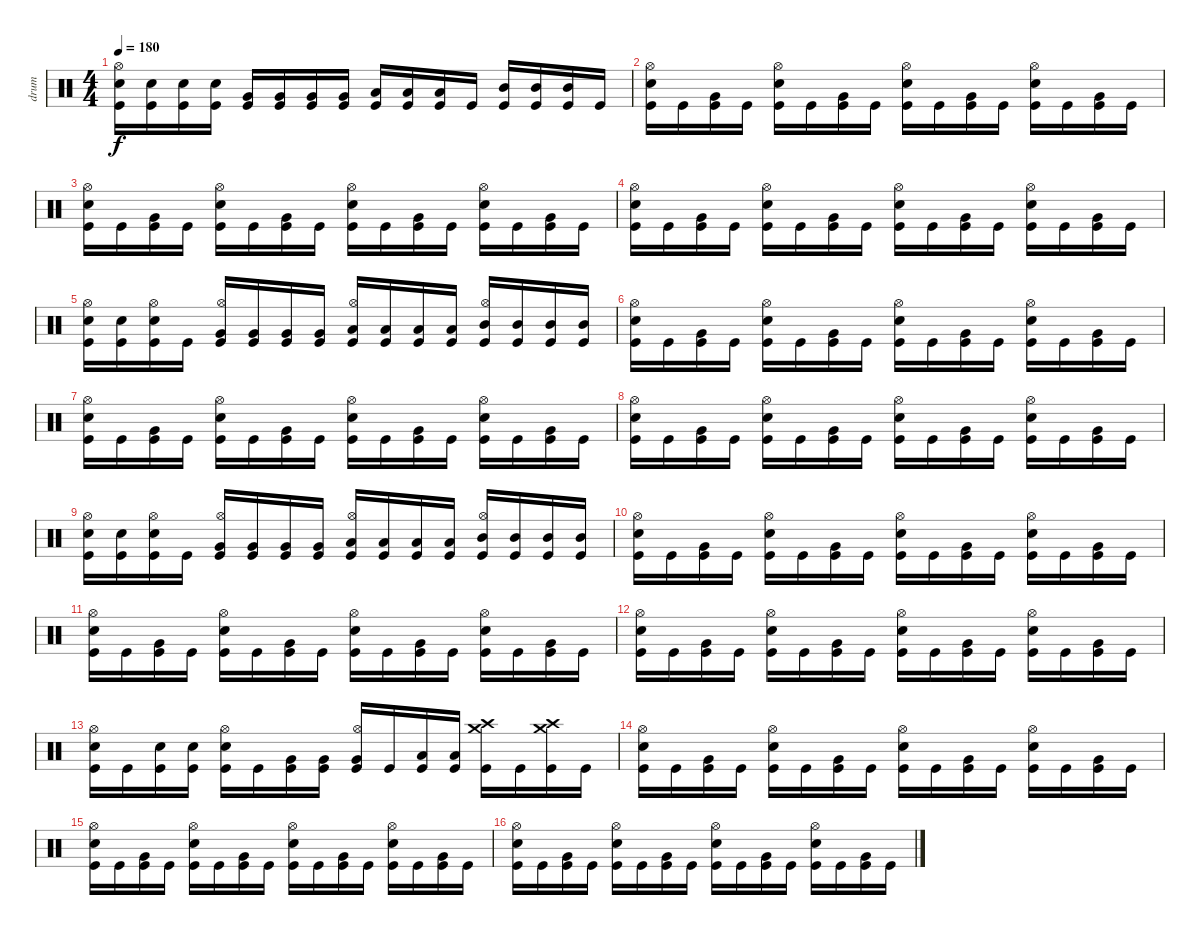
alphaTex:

\track ("drum" "drum") {instrument percussion}
\staff {score}
\articulation defaults
\ts (4 4)
\tempo 180
\clef neutral
\ks c
("Kick (hit)" "Snare (hit) 2" "Hi-Hat (open)").16{dy f} ("Kick (hit)" "Snare (hit) 2").16 ("Kick (hit)" "Snare (hit) 2").16 ("Kick (hit)" "Snare (hit) 2").16 ("Kick (hit)" "Very Low Tom (hit)").16 ("Kick (hit)" "Very Low Tom (hit)").16 ("Kick (hit)" "Very Low Tom (hit)").16 ("Kick (hit)" "Very Low Tom (hit)").16 ("Kick (hit)" "Low Tom (hit)").16 ("Kick (hit)" "Low Tom (hit)").16 ("Kick (hit)" "Low Tom (hit)").16 "Kick (hit)".16 ("Kick (hit)" "Mid Tom (hit)").16 ("Kick (hit)" "Mid Tom (hit)").16 ("Kick (hit)" "Mid Tom (hit)").16 "Kick (hit)".16 |
("Kick (hit)" "Snare (hit) 2" "Hi-Hat (open)").16 "Kick (hit)".16 ("Kick (hit)" "Very Low Tom (hit)").16 "Kick (hit)".16 ("Kick (hit)" "Snare (hit) 2" "Hi-Hat (open)").16 "Kick (hit)".16 ("Kick (hit)" "Very Low Tom (hit)").16 "Kick (hit)".16 ("Kick (hit)" "Snare (hit) 2" "Hi-Hat (open)").16 "Kick (hit)".16 ("Kick (hit)" "Very Low Tom (hit)").16 "Kick (hit)".16 ("Kick (hit)" "Snare (hit) 2" "Hi-Hat (open)").16 "Kick (hit)".16 ("Kick (hit)" "Very Low Tom (hit)").16 "Kick (hit)".16 |
("Kick (hit)" "Snare (hit) 2" "Hi-Hat (open)").16 "Kick (hit)".16 ("Kick (hit)" "Very Low Tom (hit)").16 "Kick (hit)".16 ("Kick (hit)" "Snare (hit) 2" "Hi-Hat (open)").16 "Kick (hit)".16 ("Kick (hit)" "Very Low Tom (hit)").16 "Kick (hit)".16 ("Kick (hit)" "Snare (hit) 2" "Hi-Hat (open)").16 "Kick (hit)".16 ("Kick (hit)" "Very Low Tom (hit)").16 "Kick (hit)".16 ("Kick (hit)" "Snare (hit) 2" "Hi-Hat (open)").16 "Kick (hit)".16 ("Kick (hit)" "Very Low Tom (hit)").16 "Kick (hit)".16 |
("Kick (hit)" "Snare (hit) 2" "Hi-Hat (open)").16 "Kick (hit)".16 ("Kick (hit)" "Very Low Tom (hit)").16 "Kick (hit)".16 ("Kick (hit)" "Snare (hit) 2" "Hi-Hat (open)").16 "Kick (hit)".16 ("Kick (hit)" "Very Low Tom (hit)").16 "Kick (hit)".16 ("Kick (hit)" "Snare (hit) 2" "Hi-Hat (open)").16 "Kick (hit)".16 ("Kick (hit)" "Very Low Tom (hit)").16 "Kick (hit)".16 ("Kick (hit)" "Snare (hit) 2" "Hi-Hat (open)").16 "Kick (hit)".16 ("Kick (hit)" "Very Low Tom (hit)").16 "Kick (hit)".16 |
("Kick (hit)" "Snare (hit) 2" "Hi-Hat (open)").16 ("Kick (hit)" "Snare (hit) 2").16 ("Kick (hit)" "Snare (hit) 2" "Hi-Hat (open)").16 "Kick (hit)".16 ("Kick (hit)" "Very Low Tom (hit)" "Hi-Hat (open)").16 ("Kick (hit)" "Very Low Tom (hit)").16 ("Kick (hit)" "Very Low Tom (hit)").16 ("Kick (hit)" "Very Low Tom (hit)").16 ("Kick (hit)" "Low Tom (hit)" "Hi-Hat (open)").16 ("Kick (hit)" "Low Tom (hit)").16 ("Kick (hit)" "Low Tom (hit)").16 ("Kick (hit)" "Low Tom (hit)").16 ("Kick (hit)" "Mid Tom (hit)" "Hi-Hat (open)").16 ("Kick (hit)" "Mid Tom (hit)").16 ("Kick (hit)" "Mid Tom (hit)").16 ("Kick (hit)" "Mid Tom (hit)").16 |
("Kick (hit)" "Snare (hit) 2" "Hi-Hat (open)").16 "Kick (hit)".16 ("Kick (hit)" "Very Low Tom (hit)").16 "Kick (hit)".16 ("Kick (hit)" "Snare (hit) 2" "Hi-Hat (open)").16 "Kick (hit)".16 ("Kick (hit)" "Very Low Tom (hit)").16 "Kick (hit)".16 ("Kick (hit)" "Snare (hit) 2" "Hi-Hat (open)").16 "Kick (hit)".16 ("Kick (hit)" "Very Low Tom (hit)").16 "Kick (hit)".16 ("Kick (hit)" "Snare (hit) 2" "Hi-Hat (open)").16 "Kick (hit)".16 ("Kick (hit)" "Very Low Tom (hit)").16 "Kick (hit)".16 |
("Kick (hit)" "Snare (hit) 2" "Hi-Hat (open)").16 "Kick (hit)".16 ("Kick (hit)" "Very Low Tom (hit)").16 "Kick (hit)".16 ("Kick (hit)" "Snare (hit) 2" "Hi-Hat (open)").16 "Kick (hit)".16 ("Kick (hit)" "Very Low Tom (hit)").16 "Kick (hit)".16 ("Kick (hit)" "Snare (hit) 2" "Hi-Hat (open)").16 "Kick (hit)".16 ("Kick (hit)" "Very Low Tom (hit)").16 "Kick (hit)".16 ("Kick (hit)" "Snare (hit) 2" "Hi-Hat (open)").16 "Kick (hit)".16 ("Kick (hit)" "Very Low Tom (hit)").16 "Kick (hit)".16 |
("Kick (hit)" "Snare (hit) 2" "Hi-Hat (open)").16 "Kick (hit)".16 ("Kick (hit)" "Very Low Tom (hit)").16 "Kick (hit)".16 ("Kick (hit)" "Snare (hit) 2" "Hi-Hat (open)").16 "Kick (hit)".16 ("Kick (hit)" "Very Low Tom (hit)").16 "Kick (hit)".16 ("Kick (hit)" "Snare (hit) 2" "Hi-Hat (open)").16 "Kick (hit)".16 ("Kick (hit)" "Very Low Tom (hit)").16 "Kick (hit)".16 ("Kick (hit)" "Snare (hit) 2" "Hi-Hat (open)").16 "Kick (hit)".16 ("Kick (hit)" "Very Low Tom (hit)").16 "Kick (hit)".16 |
("Kick (hit)" "Snare (hit) 2" "Hi-Hat (open)").16 ("Kick (hit)" "Snare (hit) 2").16 ("Kick (hit)" "Snare (hit) 2" "Hi-Hat (open)").16 "Kick (hit)".16 ("Kick (hit)" "Very Low Tom (hit)" "Hi-Hat (open)").16 ("Kick (hit)" "Very Low Tom (hit)").16 ("Kick (hit)" "Very Low Tom (hit)").16 ("Kick (hit)" "Very Low Tom (hit)").16 ("Kick (hit)" "Low Tom (hit)" "Hi-Hat (open)").16 ("Kick (hit)" "Low Tom (hit)").16 ("Kick (hit)" "Low Tom (hit)").16 ("Kick (hit)" "Low Tom (hit)").16 ("Kick (hit)" "Mid Tom (hit)" "Hi-Hat (open)").16 ("Kick (hit)" "Mid Tom (hit)").16 ("Kick (hit)" "Mid Tom (hit)").16 ("Kick (hit)" "Mid Tom (hit)").16 |
("Kick (hit)" "Snare (hit) 2" "Hi-Hat (open)").16 "Kick (hit)".16 ("Kick (hit)" "Very Low Tom (hit)").16 "Kick (hit)".16 ("Kick (hit)" "Snare (hit) 2" "Hi-Hat (open)").16 "Kick (hit)".16 ("Kick (hit)" "Very Low Tom (hit)").16 "Kick (hit)".16 ("Kick (hit)" "Snare (hit) 2" "Hi-Hat (open)").16 "Kick (hit)".16 ("Kick (hit)" "Very Low Tom (hit)").16 "Kick (hit)".16 ("Kick (hit)" "Snare (hit) 2" "Hi-Hat (open)").16 "Kick (hit)".16 ("Kick (hit)" "Very Low Tom (hit)").16 "Kick (hit)".16 |
("Kick (hit)" "Snare (hit) 2" "Hi-Hat (open)").16 "Kick (hit)".16 ("Kick (hit)" "Very Low Tom (hit)").16 "Kick (hit)".16 ("Kick (hit)" "Snare (hit) 2" "Hi-Hat (open)").16 "Kick (hit)".16 ("Kick (hit)" "Very Low Tom (hit)").16 "Kick (hit)".16 ("Kick (hit)" "Snare (hit) 2" "Hi-Hat (open)").16 "Kick (hit)".16 ("Kick (hit)" "Very Low Tom (hit)").16 "Kick (hit)".16 ("Kick (hit)" "Snare (hit) 2" "Hi-Hat (open)").16 "Kick (hit)".16 ("Kick (hit)" "Very Low Tom (hit)").16 "Kick (hit)".16 |
("Kick (hit)" "Snare (hit) 2" "Hi-Hat (open)").16 "Kick (hit)".16 ("Kick (hit)" "Very Low Tom (hit)").16 "Kick (hit)".16 ("Kick (hit)" "Snare (hit) 2" "Hi-Hat (open)").16 "Kick (hit)".16 ("Kick (hit)" "Very Low Tom (hit)").16 "Kick (hit)".16 ("Kick (hit)" "Snare (hit) 2" "Hi-Hat (open)").16 "Kick (hit)".16 ("Kick (hit)" "Very Low Tom (hit)").16 "Kick (hit)".16 ("Kick (hit)" "Snare (hit) 2" "Hi-Hat (open)").16 "Kick (hit)".16 ("Kick (hit)" "Very Low Tom (hit)").16 "Kick (hit)".16 |
("Kick (hit)" "Snare (hit) 2" "Hi-Hat (open)").16 "Kick (hit)".16 ("Kick (hit)" "Snare (hit) 2").16 ("Kick (hit)" "Snare (hit) 2").16 ("Kick (hit)" "Snare (hit) 2" "Hi-Hat (open)").16 "Kick (hit)".16 ("Kick (hit)" "Very Low Tom (hit)").16 ("Kick (hit)" "Very Low Tom (hit)").16 ("Kick (hit)" "Very Low Tom (hit)" "Hi-Hat (open)").16 "Kick (hit)".16 ("Kick (hit)" "Low Tom (hit)").16 ("Kick (hit)" "Low Tom (hit)").16 ("Kick (hit)" "Crash high (hit)" "Crash medium (hit)").16 "Kick (hit)".16 ("Kick (hit)" "Crash high (hit)" "Crash medium (hit)").16 "Kick (hit)".16 |
("Kick (hit)" "Snare (hit) 2" "Hi-Hat (open)").16 "Kick (hit)".16 ("Kick (hit)" "Very Low Tom (hit)").16 "Kick (hit)".16 ("Kick (hit)" "Snare (hit) 2" "Hi-Hat (open)").16 "Kick (hit)".16 ("Kick (hit)" "Very Low Tom (hit)").16 "Kick (hit)".16 ("Kick (hit)" "Snare (hit) 2" "Hi-Hat (open)").16 "Kick (hit)".16 ("Kick (hit)" "Very Low Tom (hit)").16 "Kick (hit)".16 ("Kick (hit)" "Snare (hit) 2" "Hi-Hat (open)").16 "Kick (hit)".16 ("Kick (hit)" "Very Low Tom (hit)").16 "Kick (hit)".16 |
("Kick (hit)" "Snare (hit) 2" "Hi-Hat (open)").16 "Kick (hit)".16 ("Kick (hit)" "Very Low Tom (hit)").16 "Kick (hit)".16 ("Kick (hit)" "Snare (hit) 2" "Hi-Hat (open)").16 "Kick (hit)".16 ("Kick (hit)" "Very Low Tom (hit)").16 "Kick (hit)".16 ("Kick (hit)" "Snare (hit) 2" "Hi-Hat (open)").16 "Kick (hit)".16 ("Kick (hit)" "Very Low Tom (hit)").16 "Kick (hit)".16 ("Kick (hit)" "Snare (hit) 2" "Hi-Hat (open)").16 "Kick (hit)".16 ("Kick (hit)" "Very Low Tom (hit)").16 "Kick (hit)".16 |
("Kick (hit)" "Snare (hit) 2" "Hi-Hat (open)").16 "Kick (hit)".16 ("Kick (hit)" "Very Low Tom (hit)").16 "Kick (hit)".16 ("Kick (hit)" "Snare (hit) 2" "Hi-Hat (open)").16 "Kick (hit)".16 ("Kick (hit)" "Very Low Tom (hit)").16 "Kick (hit)".16 ("Kick (hit)" "Snare (hit) 2" "Hi-Hat (open)").16 "Kick (hit)".16 ("Kick (hit)" "Very Low Tom (hit)").16 "Kick (hit)".16 ("Kick (hit)" "Snare (hit) 2" "Hi-Hat (open)").16 "Kick (hit)".16 ("Kick (hit)" "Very Low Tom (hit)").16 "Kick (hit)".16
